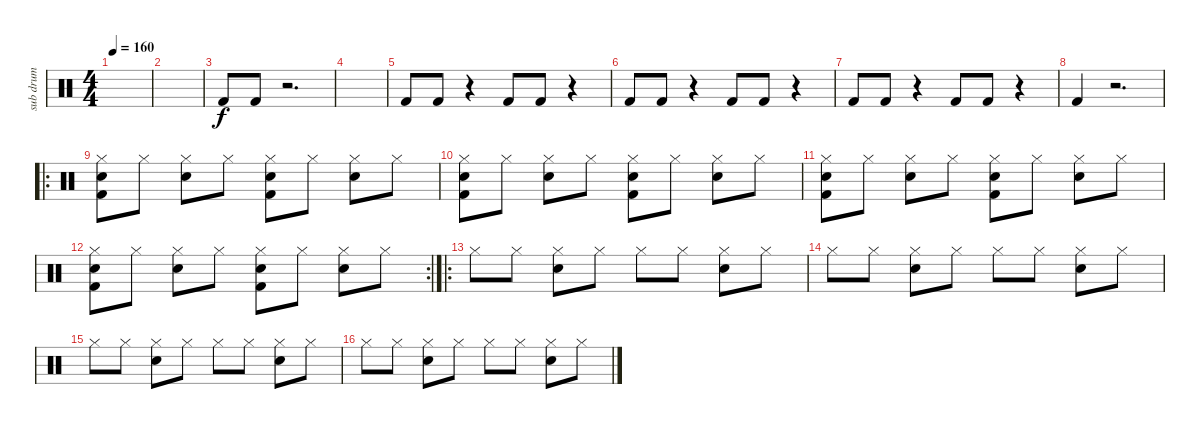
\track ("sub drum" "sub drum") {instrument percussion}
\staff {score}
\articulation defaults
\ts (4 4)
\tempo 160
\clef neutral
\ks c
|
|
"Kick (hit) 2".8 "Kick (hit) 2".8 r.2{d} |
|
"Kick (hit) 2".8 "Kick (hit) 2".8 r.4 "Kick (hit) 2".8 "Kick (hit) 2".8 r.4 |
"Kick (hit) 2".8 "Kick (hit) 2".8 r.4 "Kick (hit) 2".8 "Kick (hit) 2".8 r.4 |
"Kick (hit) 2".8 "Kick (hit) 2".8 r.4 "Kick (hit) 2".8 "Kick (hit) 2".8 r.4 |
"Kick (hit) 2".4 r.2{d} |
\ro
("Hi-Hat (closed)" "Electric Snare (hit)" "Kick (hit) 2").8 "Hi-Hat (closed)".8 ("Hi-Hat (closed)" "Electric Snare (hit)").8 "Hi-Hat (closed)".8 ("Hi-Hat (closed)" "Electric Snare (hit)" "Kick (hit) 2").8 "Hi-Hat (closed)".8 ("Hi-Hat (closed)" "Electric Snare (hit)").8 "Hi-Hat (closed)".8 |
("Hi-Hat (closed)" "Electric Snare (hit)" "Kick (hit) 2").8 "Hi-Hat (closed)".8 ("Hi-Hat (closed)" "Electric Snare (hit)").8 "Hi-Hat (closed)".8 ("Hi-Hat (closed)" "Electric Snare (hit)" "Kick (hit) 2").8 "Hi-Hat (closed)".8 ("Hi-Hat (closed)" "Electric Snare (hit)").8 "Hi-Hat (closed)".8 |
("Hi-Hat (closed)" "Electric Snare (hit)" "Kick (hit) 2").8 "Hi-Hat (closed)".8 ("Hi-Hat (closed)" "Electric Snare (hit)").8 "Hi-Hat (closed)".8 ("Hi-Hat (closed)" "Electric Snare (hit)" "Kick (hit) 2").8 "Hi-Hat (closed)".8 ("Hi-Hat (closed)" "Electric Snare (hit)").8 "Hi-Hat (closed)".8 |
\rc 2
("Hi-Hat (closed)" "Electric Snare (hit)" "Kick (hit) 2").8 "Hi-Hat (closed)".8 ("Hi-Hat (closed)" "Electric Snare (hit)").8 "Hi-Hat (closed)".8 ("Hi-Hat (closed)" "Electric Snare (hit)" "Kick (hit) 2").8 "Hi-Hat (closed)".8 ("Hi-Hat (closed)" "Electric Snare (hit)").8 "Hi-Hat (closed)".8 |
\ro "Hi-Hat (closed)".8 "Hi-Hat (closed)".8
("Hi-Hat (closed)" "Electric Snare (hit)").8 "Hi-Hat (closed)".8 "Hi-Hat (closed)".8 "Hi-Hat (closed)".8 ("Hi-Hat (closed)" "Electric Snare (hit)").8 "Hi-Hat (closed)".8 |
"Hi-Hat (closed)".8 "Hi-Hat (closed)".8 ("Hi-Hat (closed)" "Electric Snare (hit)").8 "Hi-Hat (closed)".8 "Hi-Hat (closed)".8 "Hi-Hat (closed)".8 ("Hi-Hat (closed)" "Electric Snare (hit)").8 "Hi-Hat (closed)".8 |
"Hi-Hat (closed)".8 "Hi-Hat (closed)".8 ("Hi-Hat (closed)" "Electric Snare (hit)").8 "Hi-Hat (closed)".8 "Hi-Hat (closed)".8 "Hi-Hat (closed)".8 ("Hi-Hat (closed)" "Electric Snare (hit)").8 "Hi-Hat (closed)".8 |
"Hi-Hat (closed)".8 "Hi-Hat (closed)".8 ("Hi-Hat (closed)" "Electric Snare (hit)").8 "Hi-Hat (closed)".8 "Hi-Hat (closed)".8 "Hi-Hat (closed)".8 ("Hi-Hat (closed)" "Electric Snare (hit)").8 "Hi-Hat (closed)".8
